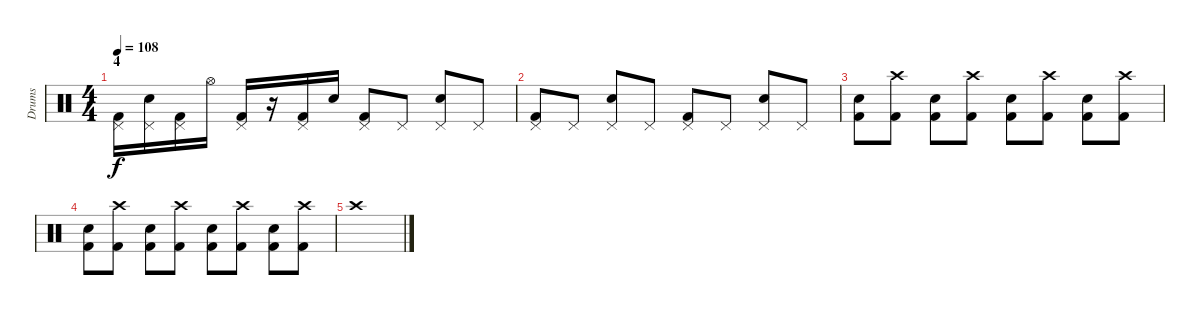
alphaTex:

\track ("Drums" "Drums") {instrument percussion}
\staff {score}
\articulation defaults
\ts (4 4)
\section ("" "4")
\tempo 108
\clef neutral
\ks c
("Pedal Hi-Hat (hit)" "Kick (hit) 2").16{dy f} ("Pedal Hi-Hat (hit)" "Electric Snare (hit)").16 ("Pedal Hi-Hat (hit)" "Kick (hit) 2").16 "Hi-Hat (open)".16 ("Pedal Hi-Hat (hit)" "Kick (hit) 2").16 r.16 ("Pedal Hi-Hat (hit)" "Kick (hit) 2").16 "Electric Snare (hit)".16 ("Pedal Hi-Hat (hit)" "Kick (hit) 2").8 "Pedal Hi-Hat (hit)".8 ("Pedal Hi-Hat (hit)" "Electric Snare (hit)").8 "Pedal Hi-Hat (hit)".8 |
("Pedal Hi-Hat (hit)" "Kick (hit) 2").8 "Pedal Hi-Hat (hit)".8 ("Pedal Hi-Hat (hit)" "Electric Snare (hit)").8 "Pedal Hi-Hat (hit)".8 ("Pedal Hi-Hat (hit)" "Kick (hit) 2").8 "Pedal Hi-Hat (hit)".8 ("Pedal Hi-Hat (hit)" "Electric Snare (hit)").8 "Pedal Hi-Hat (hit)".8 |
("Electric Snare (hit)" "Kick (hit) 2").8 ("Crash high (hit)" "Kick (hit) 2").8 ("Electric Snare (hit)" "Kick (hit) 2").8 ("Crash high (hit)" "Kick (hit) 2").8 ("Electric Snare (hit)" "Kick (hit) 2").8 ("Crash high (hit)" "Kick (hit) 2").8 ("Electric Snare (hit)" "Kick (hit) 2").8 ("Crash high (hit)" "Kick (hit) 2").8 |
("Electric Snare (hit)" "Kick (hit) 2").8 ("Crash high (hit)" "Kick (hit) 2").8 ("Electric Snare (hit)" "Kick (hit) 2").8 ("Crash high (hit)" "Kick (hit) 2").8 ("Electric Snare (hit)" "Kick (hit) 2").8 ("Crash high (hit)" "Kick (hit) 2").8 ("Electric Snare (hit)" "Kick (hit) 2").8 ("Crash high (hit)" "Kick (hit) 2").8 |
"Crash high (hit)".1
